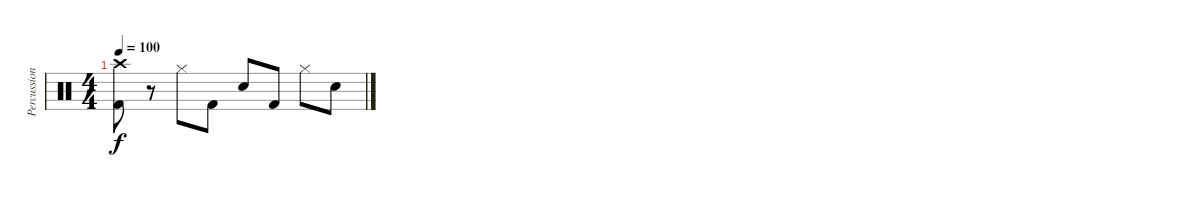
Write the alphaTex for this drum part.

\track ("Percussions" "Percussion") {instrument percussion}
\staff {score}
\articulation defaults
\ts (4 4)
\tempo 100
\clef neutral
\ks c
("Crash high (hit)" "Kick (hit) 2").8{dy f} r.8 "Hi-Hat (closed)".8 "Kick (hit) 2".8 "Snare (hit) 2".8 "Kick (hit) 2".8 "Hi-Hat (closed)".8 "Snare (hit) 2".8
